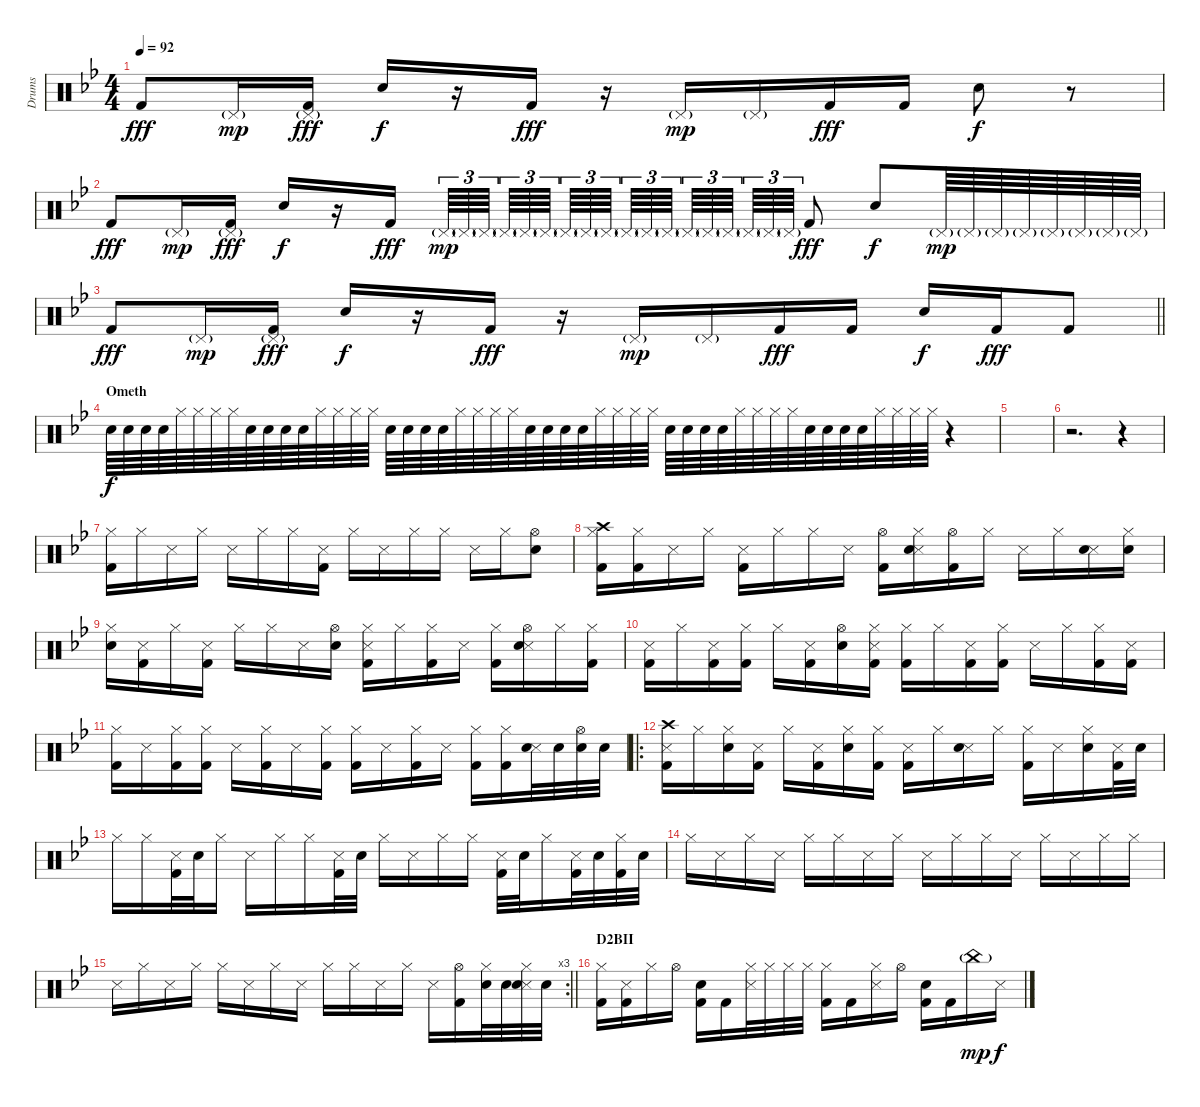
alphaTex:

\track ("Drums" "Drums") {instrument percussion}
\staff {score}
\articulation defaults
\ts (4 4)
\tempo 92
\clef neutral
\ks bb "Kick (hit) 2".8{dy fff} "Pedal Hi-Hat (hit)"{g}.16{dy mp}
("Pedal Hi-Hat (hit)"{g} "Kick (hit) 2").16{dy fff} "Hand Clap (hit)".16{dy f} r.16 "Kick (hit) 2".16{dy fff} r.16 "Pedal Hi-Hat (hit)"{g}.16{dy mp} "Pedal Hi-Hat (hit)"{g}.16 "Kick (hit) 2".16{dy fff} "Kick (hit) 2".16 "Hand Clap (hit)".8{dy f} r.8 |
"Kick (hit) 2".8{dy fff} "Pedal Hi-Hat (hit)"{g}.16{dy mp} ("Pedal Hi-Hat (hit)"{g} "Kick (hit) 2").16{dy fff} "Hand Clap (hit)".16{dy f} r.16 "Kick (hit) 2".16{dy fff beam splitsecondary} "Pedal Hi-Hat (hit)"{g}.64{tu (3 2) dy mp} "Pedal Hi-Hat (hit)"{g}.64{tu (3 2)} "Pedal Hi-Hat (hit)"{g}.64{tu (3 2) beam splitsecondary} "Pedal Hi-Hat (hit)"{g}.64{tu (3 2)} "Pedal Hi-Hat (hit)"{g}.64{tu (3 2)} "Pedal Hi-Hat (hit)"{g}.64{tu (3 2)} "Pedal Hi-Hat (hit)"{g}.64{tu (3 2)} "Pedal Hi-Hat (hit)"{g}.64{tu (3 2)} "Pedal Hi-Hat (hit)"{g}.64{tu (3 2) beam splitsecondary} "Pedal Hi-Hat (hit)"{g}.64{tu (3 2)} "Pedal Hi-Hat (hit)"{g}.64{tu (3 2)} "Pedal Hi-Hat (hit)"{g}.64{tu (3 2) beam splitsecondary} "Pedal Hi-Hat (hit)"{g}.64{tu (3 2)} "Pedal Hi-Hat (hit)"{g}.64{tu (3 2)} "Pedal Hi-Hat (hit)"{g}.64{tu (3 2) beam splitsecondary} "Pedal Hi-Hat (hit)"{g}.64{tu (3 2)} "Pedal Hi-Hat (hit)"{g}.64{tu (3 2)} "Pedal Hi-Hat (hit)"{g}.64{tu (3 2)} "Kick (hit) 2".8{dy fff} "Hand Clap (hit)".8{dy f} "Pedal Hi-Hat (hit)"{g}.64{dy mp} "Pedal Hi-Hat (hit)"{g}.64 "Pedal Hi-Hat (hit)"{g}.64 "Pedal Hi-Hat (hit)"{g}.64 "Pedal Hi-Hat (hit)"{g}.64 "Pedal Hi-Hat (hit)"{g}.64 "Pedal Hi-Hat (hit)"{g}.64 "Pedal Hi-Hat (hit)"{g}.64 |
\barLineRight lightlight "Kick (hit) 2".8{dy fff} "Pedal Hi-Hat (hit)"{g}.16{dy mp}
("Pedal Hi-Hat (hit)"{g} "Kick (hit) 2").16{dy fff} "Hand Clap (hit)".16{dy f} r.16 "Kick (hit) 2".16{dy fff} r.16 "Pedal Hi-Hat (hit)"{g}.16{dy mp} "Pedal Hi-Hat (hit)"{g}.16 "Kick (hit) 2".16{dy fff} "Kick (hit) 2".16 "Hand Clap (hit)".16{dy f} "Kick (hit) 2".16{dy fff} "Kick (hit) 2".8 |
\section ("" "Ometh")
"Snare (hit) 2".64{dy f volume 0} "Snare (hit) 2".64 "Snare (hit) 2".64 "Snare (hit) 2".64 "Hi-Hat (closed)".64 "Hi-Hat (closed)".64 "Hi-Hat (closed)".64 "Hi-Hat (closed)".64 "Snare (hit) 2".64 "Snare (hit) 2".64 "Snare (hit) 2".64 "Snare (hit) 2".64 "Hi-Hat (closed)".64 "Hi-Hat (closed)".64 "Hi-Hat (closed)".64 "Hi-Hat (closed)".64 "Snare (hit) 2".64 "Snare (hit) 2".64 "Snare (hit) 2".64 "Snare (hit) 2".64 "Hi-Hat (closed)".64 "Hi-Hat (closed)".64 "Hi-Hat (closed)".64 "Hi-Hat (closed)".64 "Snare (hit) 2".64 "Snare (hit) 2".64 "Snare (hit) 2".64 "Snare (hit) 2".64 "Hi-Hat (closed)".64 "Hi-Hat (closed)".64 "Hi-Hat (closed)".64 "Hi-Hat (closed)".64 "Snare (hit) 2".64 "Snare (hit) 2".64 "Snare (hit) 2".64 "Snare (hit) 2".64 "Hi-Hat (closed)".64 "Hi-Hat (closed)".64 "Hi-Hat (closed)".64 "Hi-Hat (closed)".64 "Snare (hit) 2".64 "Snare (hit) 2".64 "Snare (hit) 2".64 "Snare (hit) 2".64 "Hi-Hat (closed)".64 "Hi-Hat (closed)".64 "Hi-Hat (closed)".64 "Hi-Hat (closed)".64 r.4 |
|
r.2{d} r.4{volume 15} |
("Hi-Hat (closed)" "Kick (hit) 2").16 "Hi-Hat (closed)".16 "Snare (side stick) 3".16 "Hi-Hat (closed)".16 "Snare (side stick) 3".16 "Hi-Hat (closed)".16 "Hi-Hat (closed)".16 ("Snare (side stick) 3" "Kick (hit) 2").16 "Hi-Hat (closed)".16 "Snare (side stick) 3".16 "Hi-Hat (closed)".16 "Hi-Hat (closed)".16 "Snare (side stick) 3".16 "Hi-Hat (closed)".16 ("Hi-Hat (open)" "Snare (hit) 2").8 |
("Crash high (hit)" "Hi-Hat (closed)" "Kick (hit) 2").16 ("Hi-Hat (closed)" "Kick (hit) 2").16 "Snare (side stick) 3".16 "Hi-Hat (closed)".16 ("Snare (side stick) 3" "Kick (hit) 2").16 "Hi-Hat (closed)".16 "Hi-Hat (closed)".16 "Snare (side stick) 3".16 ("Hi-Hat (open)" "Kick (hit) 2").16 ("Snare (side stick) 3" "Hi-Hat (closed)" "Snare (hit) 2").16 ("Hi-Hat (open)" "Kick (hit) 2").16 "Hi-Hat (closed)".16 "Snare (side stick) 3".16 "Hi-Hat (closed)".16 ("Snare (side stick) 3" "Snare (hit) 2").16 ("Hi-Hat (closed)" "Snare (hit) 2").16 |
("Hi-Hat (closed)" "Snare (hit) 2").16 ("Snare (side stick) 3" "Kick (hit) 2").16 "Hi-Hat (closed)".16 ("Snare (side stick) 3" "Kick (hit) 2").16 "Hi-Hat (closed)".16 "Hi-Hat (closed)".16 "Snare (side stick) 3".16 ("Hi-Hat (open)" "Snare (hit) 2").16 ("Snare (side stick) 3" "Hi-Hat (closed)" "Kick (hit) 2").16 "Hi-Hat (closed)".16 ("Hi-Hat (closed)" "Kick (hit) 2").16 "Snare (side stick) 3".16 ("Hi-Hat (closed)" "Kick (hit) 2").16 ("Snare (side stick) 3" "Hi-Hat (open)" "Snare (hit) 2").16 "Hi-Hat (closed)".16 ("Hi-Hat (closed)" "Kick (hit) 2").16 |
("Snare (side stick) 3" "Kick (hit) 2").16 "Hi-Hat (closed)".16 ("Snare (side stick) 3" "Kick (hit) 2").16 ("Hi-Hat (closed)" "Kick (hit) 2").16 "Hi-Hat (closed)".16 ("Snare (side stick) 3" "Kick (hit) 2").16 ("Hi-Hat (open)" "Snare (hit) 2").16 ("Snare (side stick) 3" "Hi-Hat (closed)" "Kick (hit) 2").16 ("Hi-Hat (closed)" "Kick (hit) 2").16 "Hi-Hat (closed)".16 ("Snare (side stick) 3" "Kick (hit) 2").16 ("Hi-Hat (closed)" "Kick (hit) 2").16 "Snare (side stick) 3".16 "Hi-Hat (closed)".16 ("Hi-Hat (closed)" "Kick (hit) 2").16 ("Snare (side stick) 3" "Kick (hit) 2").16 |
("Hi-Hat (closed)" "Kick (hit) 2").16 "Snare (side stick) 3".16 ("Hi-Hat (closed)" "Kick (hit) 2").16 ("Hi-Hat (closed)" "Kick (hit) 2").16 "Snare (side stick) 3".16 ("Hi-Hat (closed)" "Kick (hit) 2").16 "Snare (side stick) 3".16 ("Hi-Hat (closed)" "Kick (hit) 2").16 ("Hi-Hat (closed)" "Kick (hit) 2").16 "Snare (side stick) 3".16 ("Hi-Hat (closed)" "Kick (hit) 2").16 "Snare (side stick) 3".16 ("Hi-Hat (closed)" "Kick (hit) 2").16 ("Hi-Hat (closed)" "Kick (hit) 2").16 ("Snare (side stick) 3" "Snare (hit) 2").32 "Snare (hit) 2".32 ("Hi-Hat (open)" "Snare (hit) 2").32 "Snare (hit) 2".32 |
\ro
("Crash high (hit)" "Snare (side stick) 3" "Kick (hit) 2").16 "Hi-Hat (closed)".16 ("Hi-Hat (closed)" "Snare (hit) 2").16 ("Snare (side stick) 3" "Kick (hit) 2").16 "Hi-Hat (closed)".16 ("Snare (side stick) 3" "Kick (hit) 2").16 ("Hi-Hat (closed)" "Snare (hit) 2").16 ("Hi-Hat (closed)" "Kick (hit) 2").16 ("Snare (side stick) 3" "Kick (hit) 2").16 "Hi-Hat (closed)".16 ("Snare (side stick) 3" "Snare (hit) 2").16 "Hi-Hat (closed)".16 ("Hi-Hat (closed)" "Kick (hit) 2").16 "Snare (side stick) 3".16 ("Hi-Hat (closed)" "Snare (hit) 2").16 ("Snare (side stick) 3" "Kick (hit) 2").32 "Snare (hit) 2".32 |
"Hi-Hat (closed)".16 "Hi-Hat (closed)".16 ("Snare (side stick) 3" "Kick (hit) 2").32 "Snare (hit) 2".32 "Hi-Hat (closed)".16 "Snare (side stick) 3".16 "Hi-Hat (closed)".16 "Hi-Hat (closed)".16 ("Snare (side stick) 3" "Kick (hit) 2").32 "Snare (hit) 2".32 "Hi-Hat (closed)".16 "Snare (side stick) 3".16 "Hi-Hat (closed)".16 "Hi-Hat (closed)".16 ("Snare (side stick) 3" "Kick (hit) 2").32 "Snare (hit) 2".32 "Hi-Hat (closed)".16 ("Snare (side stick) 3" "Kick (hit) 2").32 "Snare (hit) 2".32 ("Hi-Hat (closed)" "Kick (hit) 2").32 "Snare (hit) 2".32 |
"Hi-Hat (closed)".16 "Snare (side stick) 3".16 "Hi-Hat (closed)".16 "Snare (side stick) 3".16 "Hi-Hat (closed)".16 "Hi-Hat (closed)".16 "Snare (side stick) 3".16 "Hi-Hat (closed)".16 "Snare (side stick) 3".16 "Hi-Hat (closed)".16 "Hi-Hat (closed)".16 "Snare (side stick) 3".16 "Hi-Hat (closed)".16 "Snare (side stick) 3".16 "Hi-Hat (closed)".16 "Hi-Hat (closed)".16 |
\rc 3
\barLineRight lightlight "Snare (side stick) 3".16 "Hi-Hat (closed)".16 "Snare (side stick) 3".16 "Hi-Hat (closed)".16 "Hi-Hat (closed)".16 "Snare (side stick) 3".16 "Hi-Hat (closed)".16 "Snare (side stick) 3".16 "Hi-Hat (closed)".16 "Hi-Hat (closed)".16 "Snare (side stick) 3".16 "Hi-Hat (closed)".16 "Snare (side stick) 3".16
("Hi-Hat (open)" "Kick (hit) 2").16 ("Hi-Hat (closed)" "Snare (hit) 2").32 "Snare (hit) 2".32 ("Snare (side stick) 3" "Hi-Hat (closed)" "Snare (hit) 2").32 "Snare (hit) 2".32 |
\section ("" "D2BII")
("Hi-Hat (closed)" "Kick (hit) 2").16 ("Snare (side stick) 3" "Kick (hit) 2").16 "Hi-Hat (closed)".16 "Hi-Hat (open)".16 ("Snare (hit) 2" "Kick (hit) 2").16 "Kick (hit) 2".16 ("Hi-Hat (closed)" "Snare (side stick) 3").32 "Hi-Hat (closed)".32 "Hi-Hat (closed)".32 "Hi-Hat (closed)".32 ("Hi-Hat (closed)" "Kick (hit) 2").16 "Kick (hit) 2".16 ("Hi-Hat (closed)" "Snare (side stick) 3").16 "Hi-Hat (open)".16 ("Snare (hit) 2" "Kick (hit) 2").16 "Kick (hit) 2".16 "China (hit)"{g}.16{dy mp} "Snare (side stick) 3".16{dy f}
